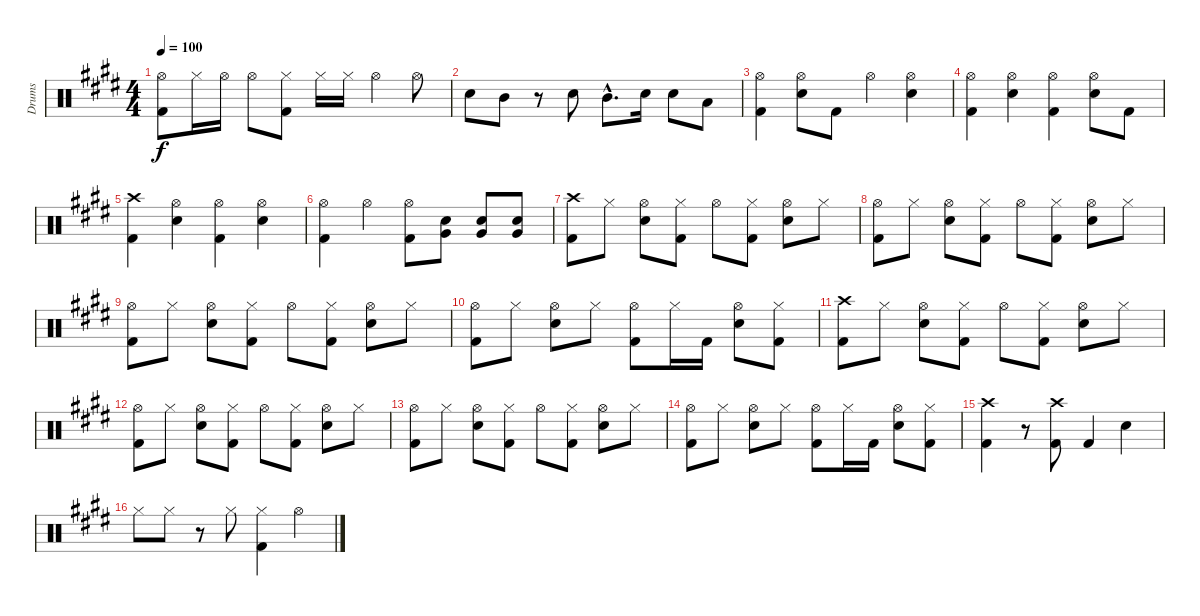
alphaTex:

\track ("Drums" "Drums") {instrument percussion}
\staff {score}
\articulation defaults
\ts (4 4)
\tempo 100
\clef neutral
\ks e
("Hi-Hat (open)" "Kick (hit) 2").8{dy f} "Hi-Hat (closed)".16 "Hi-Hat (open)".16 "Hi-Hat (open)".8 ("Hi-Hat (closed)" "Kick (hit) 2").8 "Hi-Hat (closed)".16 "Hi-Hat (closed)".16 "Hi-Hat (open)".4 "Hi-Hat (open)".8 |
"Electric Snare (hit)".8 "Mid Tom (hit)".8 r.8 "Electric Snare (hit)".8 "Mid Tom (hit)"{hac}.8{d} "Electric Snare (hit)".16 "Electric Snare (hit)".8 "Low Tom (hit)".8 |
("Hi-Hat (open)" "Kick (hit) 2").4 ("Hi-Hat (open)" "Electric Snare (hit)").8 "Kick (hit) 2".8 "Hi-Hat (open)".4 ("Hi-Hat (open)" "Electric Snare (hit)").4 |
("Hi-Hat (open)" "Kick (hit) 2").4 ("Hi-Hat (open)" "Electric Snare (hit)").4 ("Hi-Hat (open)" "Kick (hit) 2").4 ("Hi-Hat (open)" "Electric Snare (hit)").8 "Kick (hit) 2".8 |
("Crash high (hit)" "Kick (hit) 2").4 ("Hi-Hat (open)" "Electric Snare (hit)").4 ("Hi-Hat (open)" "Kick (hit) 2").4 ("Hi-Hat (open)" "Electric Snare (hit)").4 |
("Hi-Hat (open)" "Kick (hit) 2").4 "Hi-Hat (open)".4 ("Hi-Hat (open)" "Kick (hit) 2").8 ("Electric Snare (hit)" "Very Low Tom (hit)").8 ("Electric Snare (hit)" "Very Low Tom (hit)").8 ("Electric Snare (hit)" "Very Low Tom (hit)").8 |
("Crash high (hit)" "Kick (hit) 2").8 "Hi-Hat (closed)".8 ("Hi-Hat (open)" "Electric Snare (hit)").8 ("Hi-Hat (closed)" "Kick (hit) 2").8 "Hi-Hat (open)".8 ("Hi-Hat (closed)" "Kick (hit) 2").8 ("Hi-Hat (open)" "Electric Snare (hit)").8 "Hi-Hat (closed)".8 |
("Hi-Hat (open)" "Kick (hit) 2").8 "Hi-Hat (closed)".8 ("Hi-Hat (open)" "Electric Snare (hit)").8 ("Hi-Hat (closed)" "Kick (hit) 2").8 "Hi-Hat (open)".8 ("Hi-Hat (closed)" "Kick (hit) 2").8 ("Hi-Hat (open)" "Electric Snare (hit)").8 "Hi-Hat (closed)".8 |
("Hi-Hat (open)" "Kick (hit) 2").8 "Hi-Hat (closed)".8 ("Hi-Hat (open)" "Electric Snare (hit)").8 ("Hi-Hat (closed)" "Kick (hit) 2").8 "Hi-Hat (open)".8 ("Hi-Hat (closed)" "Kick (hit) 2").8 ("Hi-Hat (open)" "Electric Snare (hit)").8 "Hi-Hat (closed)".8 |
("Hi-Hat (open)" "Kick (hit) 2").8 "Hi-Hat (closed)".8 ("Hi-Hat (open)" "Electric Snare (hit)").8 "Hi-Hat (closed)".8 ("Hi-Hat (open)" "Kick (hit) 2").8 "Hi-Hat (closed)".16 "Kick (hit) 2".16 ("Hi-Hat (open)" "Electric Snare (hit)").8 ("Hi-Hat (closed)" "Kick (hit) 2").8 |
("Crash high (hit)" "Kick (hit) 2").8 "Hi-Hat (closed)".8 ("Hi-Hat (open)" "Electric Snare (hit)").8 ("Hi-Hat (closed)" "Kick (hit) 2").8 "Hi-Hat (open)".8 ("Hi-Hat (closed)" "Kick (hit) 2").8 ("Hi-Hat (open)" "Electric Snare (hit)").8 "Hi-Hat (closed)".8 |
("Hi-Hat (open)" "Kick (hit) 2").8 "Hi-Hat (closed)".8 ("Hi-Hat (open)" "Electric Snare (hit)").8 ("Hi-Hat (closed)" "Kick (hit) 2").8 "Hi-Hat (open)".8 ("Hi-Hat (closed)" "Kick (hit) 2").8 ("Hi-Hat (open)" "Electric Snare (hit)").8 "Hi-Hat (closed)".8 |
("Hi-Hat (open)" "Kick (hit) 2").8 "Hi-Hat (closed)".8 ("Hi-Hat (open)" "Electric Snare (hit)").8 ("Hi-Hat (closed)" "Kick (hit) 2").8 "Hi-Hat (open)".8 ("Hi-Hat (closed)" "Kick (hit) 2").8 ("Hi-Hat (open)" "Electric Snare (hit)").8 "Hi-Hat (closed)".8 |
("Hi-Hat (open)" "Kick (hit) 2").8 "Hi-Hat (closed)".8 ("Hi-Hat (open)" "Electric Snare (hit)").8 "Hi-Hat (closed)".8 ("Hi-Hat (open)" "Kick (hit) 2").8 "Hi-Hat (closed)".16 "Kick (hit) 2".16 ("Hi-Hat (open)" "Electric Snare (hit)").8 ("Hi-Hat (closed)" "Kick (hit) 2").8 |
("Crash high (hit)" "Kick (hit) 2").4 r.8 ("Crash high (hit)" "Kick (hit) 2").8 "Kick (hit) 2".4 "Electric Snare (hit)".4 |
"Hi-Hat (closed)".8 "Hi-Hat (closed)".8 r.8 "Hi-Hat (closed)".8 ("Hi-Hat (closed)" "Kick (hit) 2").4 "Hi-Hat (open)".4
